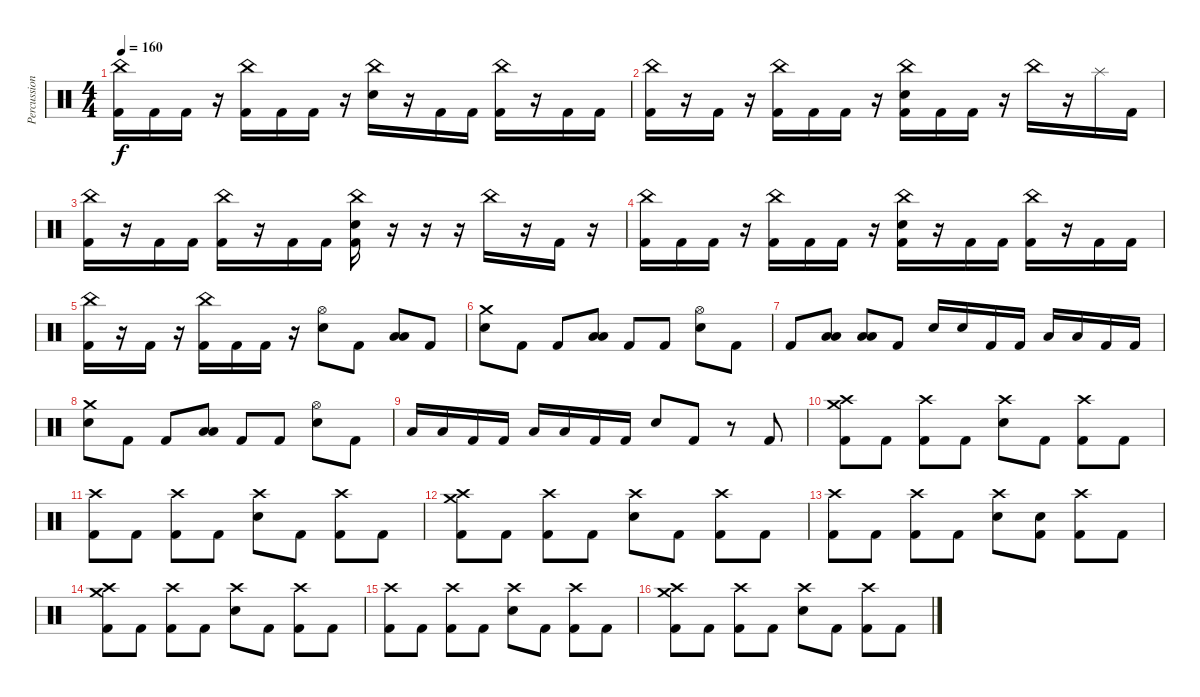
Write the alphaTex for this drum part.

\track ("Percussion" "Percussion") {instrument percussion}
\staff {score}
\articulation defaults
\ts (4 4)
\tempo 160
\clef neutral
\ks c
("China (hit)" "Kick (hit) 2").16{dy f} "Kick (hit) 2".16 "Kick (hit) 2".16 r.16 ("China (hit)" "Kick (hit) 2").16 "Kick (hit) 2".16 "Kick (hit) 2".16 r.16 ("China (hit)" "Electric Snare (hit)").16 r.16 "Kick (hit) 2".16 "Kick (hit) 2".16 ("China (hit)" "Kick (hit) 2").16 r.16 "Kick (hit) 2".16 "Kick (hit) 2".16 |
("China (hit)" "Kick (hit) 2").16 r.16 "Kick (hit) 2".16 r.16 ("China (hit)" "Kick (hit) 2").16 "Kick (hit) 2".16 "Kick (hit) 2".16 r.16 ("China (hit)" "Electric Snare (hit)" "Kick (hit) 2").16 "Kick (hit) 2".16 "Kick (hit) 2".16 r.16 "China (hit)".16 r.16 "Splash (hit)".16 "Kick (hit) 2".16 |
("China (hit)" "Kick (hit) 2").16 r.16 "Kick (hit) 2".16 "Kick (hit) 2".16 ("China (hit)" "Kick (hit) 2").16 r.16 "Kick (hit) 2".16 "Kick (hit) 2".16 ("China (hit)" "Electric Snare (hit)" "Kick (hit) 2").16 r.16 r.16 r.16 "China (hit)".16 r.16 "Kick (hit) 2".16 r.16 |
("China (hit)" "Kick (hit) 2").16 "Kick (hit) 2".16 "Kick (hit) 2".16 r.16 ("China (hit)" "Kick (hit) 2").16 "Kick (hit) 2".16 "Kick (hit) 2".16 r.16 ("China (hit)" "Electric Snare (hit)" "Kick (hit) 2").16 r.16 "Kick (hit) 2".16 "Kick (hit) 2".16 ("China (hit)" "Kick (hit) 2").16 r.16 "Kick (hit) 2".16 "Kick (hit) 2".16 |
("China (hit)" "Kick (hit) 2").16 r.16 "Kick (hit) 2".16 r.16 ("China (hit)" "Kick (hit) 2").16 "Kick (hit) 2".16 "Kick (hit) 2".16 r.16 ("Hi-Hat (open)" "Electric Snare (hit)").8 "Kick (hit) 2".8 ("Low Tom (hit)" "Low Floor Tom (hit)").8 "Kick (hit) 2".8 |
("Crash medium (hit)" "Electric Snare (hit)").8 "Kick (hit) 2".8 "Kick (hit) 2".8 ("Low Tom (hit)" "Low Floor Tom (hit)").8 "Kick (hit) 2".8 "Kick (hit) 2".8 ("Hi-Hat (open)" "Electric Snare (hit)").8 "Kick (hit) 2".8 |
"Kick (hit) 2".8 ("Low Tom (hit)" "Low Floor Tom (hit)").8 ("Low Tom (hit)" "Low Floor Tom (hit)").8 "Kick (hit) 2".8 "Electric Snare (hit)".16 "Electric Snare (hit)".16 "Kick (hit) 2".16 "Kick (hit) 2".16 "Low Tom (hit)".16 "Low Tom (hit)".16 "Kick (hit) 2".16 "Kick (hit) 2".16 |
("Crash medium (hit)" "Electric Snare (hit)").8 "Kick (hit) 2".8 "Kick (hit) 2".8 ("Low Tom (hit)" "Low Floor Tom (hit)").8 "Kick (hit) 2".8 "Kick (hit) 2".8 ("Hi-Hat (open)" "Electric Snare (hit)").8 "Kick (hit) 2".8 |
"Low Tom (hit)".16 "Low Tom (hit)".16 "Kick (hit) 2".16 "Kick (hit) 2".16 "Low Floor Tom (hit)".16 "Low Floor Tom (hit)".16 "Kick (hit) 2".16 "Kick (hit) 2".16 "Electric Snare (hit)".8 "Kick (hit) 2".8 r.8 "Kick (hit) 2".8 |
("Crash medium (hit)" "Crash high (hit)" "Kick (hit) 2").8 "Kick (hit) 2".8 ("Crash high (hit)" "Kick (hit) 2").8 "Kick (hit) 2".8 ("Crash high (hit)" "Electric Snare (hit)").8 "Kick (hit) 2".8 ("Crash high (hit)" "Kick (hit) 2").8 "Kick (hit) 2".8 |
("Crash high (hit)" "Kick (hit) 2").8 "Kick (hit) 2".8 ("Crash high (hit)" "Kick (hit) 2").8 "Kick (hit) 2".8 ("Crash high (hit)" "Electric Snare (hit)").8 "Kick (hit) 2".8 ("Crash high (hit)" "Kick (hit) 2").8 "Kick (hit) 2".8 |
("Crash medium (hit)" "Crash high (hit)" "Kick (hit) 2").8 "Kick (hit) 2".8 ("Crash high (hit)" "Kick (hit) 2").8 "Kick (hit) 2".8 ("Crash high (hit)" "Electric Snare (hit)").8 "Kick (hit) 2".8 ("Crash high (hit)" "Kick (hit) 2").8 "Kick (hit) 2".8 |
("Crash high (hit)" "Kick (hit) 2").8 "Kick (hit) 2".8 ("Crash high (hit)" "Kick (hit) 2").8 "Kick (hit) 2".8 ("Crash high (hit)" "Electric Snare (hit)").8 ("Electric Snare (hit)" "Kick (hit) 2").8 ("Crash high (hit)" "Kick (hit) 2").8 "Kick (hit) 2".8 |
("Crash medium (hit)" "Crash high (hit)" "Kick (hit) 2").8 "Kick (hit) 2".8 ("Crash high (hit)" "Kick (hit) 2").8 "Kick (hit) 2".8 ("Crash high (hit)" "Electric Snare (hit)").8 "Kick (hit) 2".8 ("Crash high (hit)" "Kick (hit) 2").8 "Kick (hit) 2".8 |
("Crash high (hit)" "Kick (hit) 2").8 "Kick (hit) 2".8 ("Crash high (hit)" "Kick (hit) 2").8 "Kick (hit) 2".8 ("Crash high (hit)" "Electric Snare (hit)").8 "Kick (hit) 2".8 ("Crash high (hit)" "Kick (hit) 2").8 "Kick (hit) 2".8 |
("Crash medium (hit)" "Crash high (hit)" "Kick (hit) 2").8 "Kick (hit) 2".8 ("Crash high (hit)" "Kick (hit) 2").8 "Kick (hit) 2".8 ("Crash high (hit)" "Electric Snare (hit)").8 "Kick (hit) 2".8 ("Crash high (hit)" "Kick (hit) 2").8 "Kick (hit) 2".8
